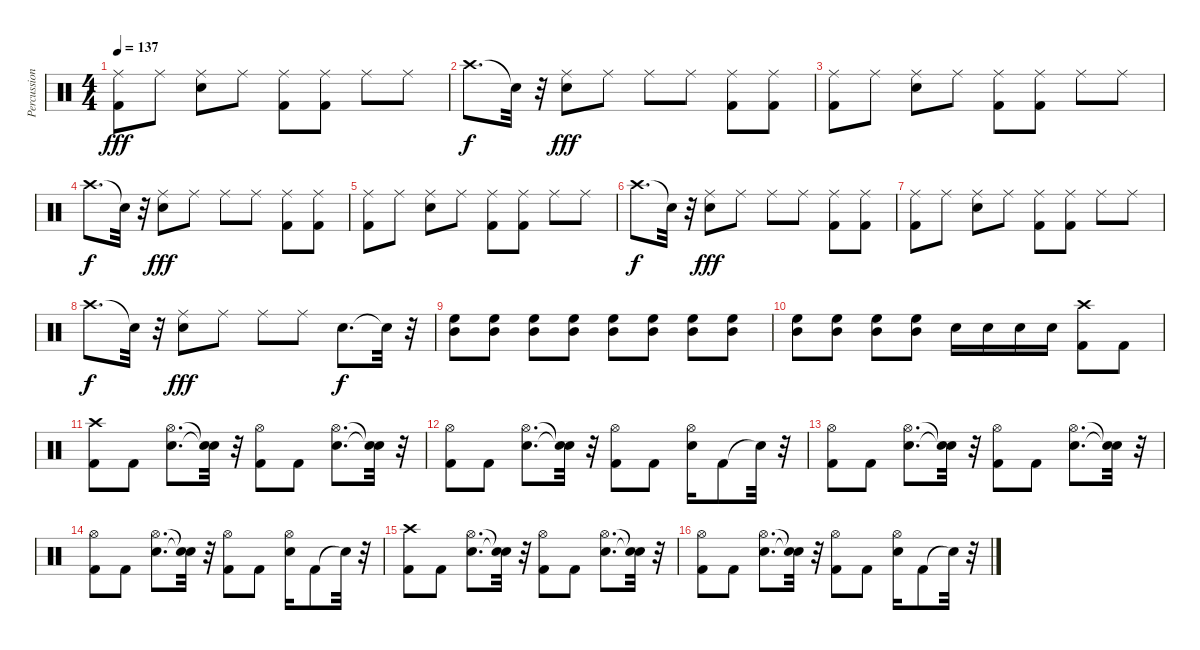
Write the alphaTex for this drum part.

\track ("Percussion" "Percussion") {instrument percussion}
\staff {score}
\articulation defaults
\ts (4 4)
\tempo 137
\clef neutral
\ks c
("Kick (hit) 2" "Ride (middle)").8{dy fff} "Ride (middle)".8 ("Snare (hit) 2" "Ride (middle)").8 "Ride (middle)".8 ("Kick (hit) 2" "Ride (middle)").8 ("Kick (hit) 2" "Ride (middle)").8 "Ride (middle)".8 "Ride (middle)".8 |
"Crash high (hit)".8{d dy f} "Snare (hit)"{t}.32 r.32 ("Ride (middle)" "Snare (hit) 2").8{dy fff} "Ride (middle)".8 "Ride (middle)".8 "Ride (middle)".8 ("Kick (hit) 2" "Ride (middle)").8 ("Kick (hit) 2" "Ride (middle)").8 |
("Kick (hit) 2" "Ride (middle)").8 "Ride (middle)".8 ("Snare (hit) 2" "Ride (middle)").8 "Ride (middle)".8 ("Kick (hit) 2" "Ride (middle)").8 ("Kick (hit) 2" "Ride (middle)").8 "Ride (middle)".8 "Ride (middle)".8 |
"Crash high (hit)".8{d dy f} "Snare (hit)"{t}.32 r.32 ("Ride (middle)" "Snare (hit) 2").8{dy fff} "Ride (middle)".8 "Ride (middle)".8 "Ride (middle)".8 ("Kick (hit) 2" "Ride (middle)").8 ("Kick (hit) 2" "Ride (middle)").8 |
("Kick (hit) 2" "Ride (middle)").8 "Ride (middle)".8 ("Snare (hit) 2" "Ride (middle)").8 "Ride (middle)".8 ("Kick (hit) 2" "Ride (middle)").8 ("Kick (hit) 2" "Ride (middle)").8 "Ride (middle)".8 "Ride (middle)".8 |
"Crash high (hit)".8{d dy f} "Snare (hit)"{t}.32 r.32 ("Ride (middle)" "Snare (hit) 2").8{dy fff} "Ride (middle)".8 "Ride (middle)".8 "Ride (middle)".8 ("Kick (hit) 2" "Ride (middle)").8 ("Kick (hit) 2" "Ride (middle)").8 |
("Kick (hit) 2" "Ride (middle)").8 "Ride (middle)".8 ("Snare (hit) 2" "Ride (middle)").8 "Ride (middle)".8 ("Kick (hit) 2" "Ride (middle)").8 ("Kick (hit) 2" "Ride (middle)").8 "Ride (middle)".8 "Ride (middle)".8 |
"Crash high (hit)".8{d dy f} "Snare (hit)"{t}.32 r.32 ("Ride (middle)" "Snare (hit) 2").8{dy fff} "Ride (middle)".8 "Ride (middle)".8 "Ride (middle)".8 "Snare (hit) 2".8{d dy f} "Snare (hit)"{t}.32 r.32 |
("High Floor Tom (hit)" "Mid Tom (hit)").8 ("High Floor Tom (hit)" "Mid Tom (hit)").8 ("High Floor Tom (hit)" "Mid Tom (hit)").8 ("High Floor Tom (hit)" "Mid Tom (hit)").8 ("High Floor Tom (hit)" "Mid Tom (hit)").8 ("High Floor Tom (hit)" "Mid Tom (hit)").8 ("High Floor Tom (hit)" "Mid Tom (hit)").8 ("High Floor Tom (hit)" "Mid Tom (hit)").8 |
("High Floor Tom (hit)" "Mid Tom (hit)").8 ("High Floor Tom (hit)" "Mid Tom (hit)").8 ("High Floor Tom (hit)" "Mid Tom (hit)").8 ("High Floor Tom (hit)" "Mid Tom (hit)").8 "Snare (hit) 2".16 "Snare (hit) 2".16 "Snare (hit) 2".16 "Snare (hit) 2".16 ("Crash high (hit)" "Kick (hit) 2").8 "Kick (hit) 2".8 |
("Kick (hit) 2" "Crash high (hit)").8 "Kick (hit) 2".8 ("Snare (hit) 2" "Hi-Hat (open)").8{d} ("Snare (hit)"{t} "Snare (hit)"{t}).32 r.32 ("Kick (hit) 2" "Hi-Hat (open)").8 "Kick (hit) 2".8 ("Hi-Hat (open)" "Snare (hit) 2").8{d} ("Snare (hit)"{t} "Snare (hit)"{t}).32 r.32 |
("Kick (hit) 2" "Hi-Hat (open)").8 "Kick (hit) 2".8 ("Snare (hit) 2" "Hi-Hat (open)").8{d} ("Snare (hit)"{t} "Snare (hit)"{t}).32 r.32 ("Kick (hit) 2" "Hi-Hat (open)").8 "Kick (hit) 2".8 ("Hi-Hat (open)" "Snare (hit) 2").16 "Kick (hit) 2".8 "Snare (hit)"{t}.32 r.32 |
("Kick (hit) 2" "Hi-Hat (open)").8 "Kick (hit) 2".8 ("Snare (hit) 2" "Hi-Hat (open)").8{d} ("Snare (hit)"{t} "Snare (hit)"{t}).32 r.32 ("Kick (hit) 2" "Hi-Hat (open)").8 "Kick (hit) 2".8 ("Hi-Hat (open)" "Snare (hit) 2").8{d} ("Snare (hit)"{t} "Snare (hit)"{t}).32 r.32 |
("Kick (hit) 2" "Hi-Hat (open)").8 "Kick (hit) 2".8 ("Snare (hit) 2" "Hi-Hat (open)").8{d} ("Snare (hit)"{t} "Snare (hit)"{t}).32 r.32 ("Kick (hit) 2" "Hi-Hat (open)").8 "Kick (hit) 2".8 ("Hi-Hat (open)" "Snare (hit) 2").16 "Kick (hit) 2".8 "Snare (hit)"{t}.32 r.32 |
("Kick (hit) 2" "Crash high (hit)").8 "Kick (hit) 2".8 ("Snare (hit) 2" "Hi-Hat (open)").8{d} ("Snare (hit)"{t} "Snare (hit)"{t}).32 r.32 ("Kick (hit) 2" "Hi-Hat (open)").8 "Kick (hit) 2".8 ("Hi-Hat (open)" "Snare (hit) 2").8{d} ("Snare (hit)"{t} "Snare (hit)"{t}).32 r.32 |
("Kick (hit) 2" "Hi-Hat (open)").8 "Kick (hit) 2".8 ("Snare (hit) 2" "Hi-Hat (open)").8{d} ("Snare (hit)"{t} "Snare (hit)"{t}).32 r.32 ("Kick (hit) 2" "Hi-Hat (open)").8 "Kick (hit) 2".8 ("Hi-Hat (open)" "Snare (hit) 2").16 "Kick (hit) 2".8 "Snare (hit)"{t}.32 r.32
